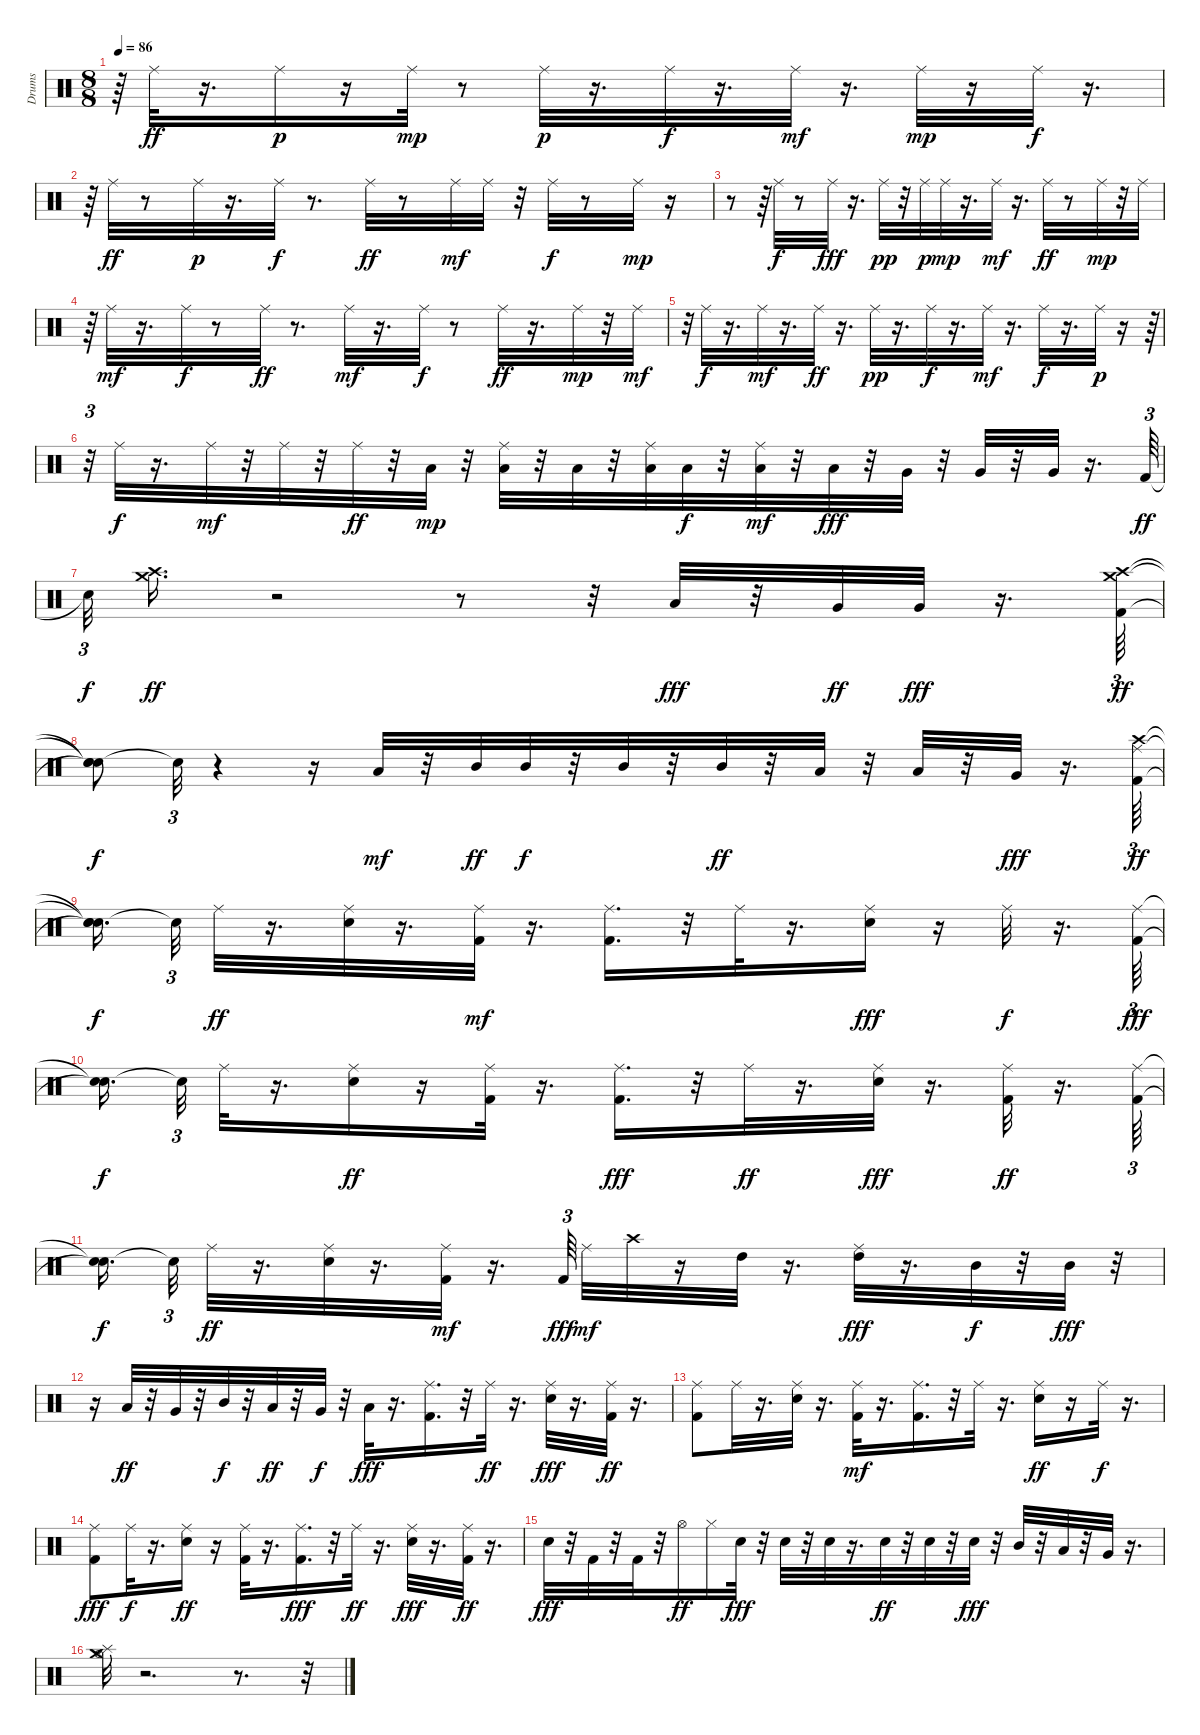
\track ("Drums" "Drums") {instrument percussion}
\staff {score}
\articulation defaults
\ts (8 8)
\tempo 86
\clef neutral
\ks c
r.64{dy f} "Ride (middle)".32{dy ff} r.16{d} "Ride (middle)".16{dy p} r.16 "Ride (middle)".32{dy mp} r.8 "Ride (middle)".32{dy p} r.16{d} "Ride (middle)".32{dy f} r.16{d} "Ride (middle)".32{dy mf} r.16{d} "Ride (middle)".32{dy mp} r.16 "Ride (middle)".32{dy f} r.16{d} |
r.64 "Ride (middle)".32{dy ff} r.8 "Ride (middle)".32{dy p} r.16{d} "Ride (middle)".32{dy f} r.8{d} "Ride (middle)".32{dy ff} r.8 "Ride (middle)".32{dy mf} "Ride (middle)".32 r.32 "Ride (middle)".32{dy f} r.8 "Ride (middle)".32{dy mp} r.16 |
r.8 r.64 "Ride (middle)".32{dy f} r.8 "Ride (middle)".32{dy fff} r.16{d} "Ride (middle)".32{dy pp} r.32 "Ride (middle)".32{dy p} "Ride (middle)".32{dy mp} r.16{d} "Ride (middle)".32{dy mf} r.16{d} "Ride (middle)".32{dy ff} r.8 "Ride (middle)".32{dy mp} r.32 "Ride (middle)".32 |
r.64 "Ride (middle)".32{dy mf} r.16{d} "Ride (middle)".32{dy f} r.8 "Ride (middle)".32{dy ff} r.8{d} "Ride (middle)".32{dy mf} r.16{d} "Ride (middle)".32{dy f} r.8 "Ride (middle)".32{dy ff} r.16{d} "Ride (middle)".32{dy mp} r.32 "Ride (middle)".32{dy mf} |
r.32{tu (3 2)} "Ride (middle)".32{dy f} r.16{d} "Ride (middle)".32{dy mf} r.16{d} "Ride (middle)".32{dy ff} r.16{d} "Ride (middle)".32{dy pp} r.16{d} "Ride (middle)".32{dy f} r.16{d} "Ride (middle)".32{dy mf} r.16{d} "Ride (middle)".32{dy f} r.16{d} "Ride (middle)".32{dy p} r.16 r.64{tu (3 2)} |
r.32{tu (3 2)} "Ride (middle)".32{dy f} r.16{d} "Ride (middle)".32{dy mf} r.32 "Ride (middle)".32 r.32 "Ride (middle)".32{dy ff} r.32 "Low Tom (hit)".32{dy mp} r.32 ("Low Tom (hit)" "Ride (middle)").32 r.32 "Low Tom (hit)".32 r.32 ("Low Tom (hit)" "Ride (middle)").32 "Low Tom (hit)".32{dy f} r.32 ("Ride (middle)" "Low Tom (hit)").32{dy mf} r.32 "Low Tom (hit)".32{dy fff} r.32 "Very Low Tom (hit)".32 r.32 "Very Low Tom (hit)".32 r.32 "Very Low Tom (hit)".32 r.16{d} "Kick (hit) 2".64{tu (3 2) dy ff} |
"Snare (hit)"{t}.32{tu (3 2) dy f} ("Crash medium (hit)" "Crash high (hit)").16{d dy ff} r.2 r.8 r.32 "Low Tom (hit)".32{dy fff} r.32 "Very Low Tom (hit)".32{dy ff} "Very Low Tom (hit)".32{dy fff} r.16{d} ("Kick (hit) 2" "Crash high (hit)" "Crash medium (hit)").64{tu (3 2) dy ff} |
("Snare (hit)"{t} "Snare (hit)"{t} "Snare (hit)"{t}).8{dy f} "Snare (hit)"{t}.32{tu (3 2)} r.4 r.16 "Low Tom (hit)".32{dy mf} r.32 "Mid Tom (hit)".32{dy ff} "Mid Tom (hit)".32{dy f} r.32 "Mid Tom (hit)".32 r.32 "Mid Tom (hit)".32{dy ff} r.32 "Low Tom (hit)".32 r.32 "Low Tom (hit)".32 r.32 "Very Low Tom (hit)".32{dy fff} r.16{d} ("Crash high (hit)" "Ride (middle)" "Kick (hit) 2").64{tu (3 2) dy ff} |
("Snare (hit)"{t} "Snare (hit)"{t} "Snare (hit)"{t}).16{d dy f} "Snare (hit)"{t}.32{tu (3 2)} "Ride (middle)".32{dy ff} r.16{d} ("Ride (middle)" "Electric Snare (hit)").32 r.16{d} ("Kick (hit) 2" "Ride (middle)").32{dy mf} r.16{d} ("Kick (hit) 2" "Ride (middle)").16{d} r.32 "Ride (middle)".32 r.16{d} ("Electric Snare (hit)" "Ride (middle)").16{dy fff} r.16 "Ride (middle)".32{dy f} r.16{d} ("Kick (hit) 2" "Ride (middle)").64{tu (3 2) dy fff} |
("Snare (hit)"{t} "Snare (hit)"{t}).16{d dy f} "Snare (hit)"{t}.32{tu (3 2)} "Ride (middle)".32 r.16{d} ("Ride (middle)" "Electric Snare (hit)").16{dy ff} r.16 ("Ride (middle)" "Kick (hit) 2").32 r.16{d} ("Ride (middle)" "Kick (hit) 2").16{d dy fff} r.32 "Ride (middle)".32{dy ff} r.16{d} ("Electric Snare (hit)" "Ride (middle)").32{dy fff} r.16{d} ("Kick (hit) 2" "Ride (middle)").32{dy ff} r.16{d} ("Ride (middle)" "Kick (hit) 2").64{tu (3 2)} |
("Snare (hit)"{t} "Snare (hit)"{t}).16{d dy f} "Snare (hit)"{t}.32{tu (3 2)} "Ride (middle)".32{dy ff} r.16{d} ("Electric Snare (hit)" "Ride (middle)").32 r.16{d} ("Kick (hit) 2" "Ride (middle)").32{dy mf} r.16{d} "Kick (hit) 2".64{tu (3 2) dy fff} "Ride (middle)".32{dy mf} "Crash high (hit)".32 r.16 "High Tom (hit)".32 r.16{d} ("Ride (middle)" "High Tom (hit)").32{dy fff} r.16{d} "Mid Tom (hit)".32{dy f} r.32 "Mid Tom (hit)".32{dy fff} r.32 |
r.16 "Low Tom (hit)".32{dy ff} r.32 "Very Low Tom (hit)".32 r.32 "Mid Tom (hit)".32{dy f} r.32 "Low Floor Tom (hit)".32{dy ff} r.32 "Very Low Tom (hit)".32{dy f} r.32 "Low Floor Tom (hit)".32{dy fff} r.16{d} ("Kick (hit) 2" "Ride (middle)").16{d} r.32 "Ride (middle)".32{dy ff} r.16{d} ("Electric Snare (hit)" "Ride (middle)").32{dy fff} r.16{d} ("Kick (hit) 2" "Ride (middle)").32{dy ff} r.16{d} |
("Kick (hit) 2" "Ride (middle)").8 "Ride (middle)".32 r.16{d} ("Ride (middle)" "Electric Snare (hit)").32 r.16{d} ("Kick (hit) 2" "Ride (middle)").32{dy mf} r.16{d} ("Kick (hit) 2" "Ride (middle)").16{d} r.32 "Ride (middle)".32 r.16{d} ("Ride (middle)" "Electric Snare (hit)").16{dy ff} r.16 "Ride (middle)".32{dy f} r.16{d} |
("Ride (middle)" "Kick (hit) 2").8{dy fff} "Ride (middle)".32{dy f} r.16{d} ("Ride (middle)" "Electric Snare (hit)").16{dy ff} r.16 ("Ride (middle)" "Kick (hit) 2").32 r.16{d} ("Ride (middle)" "Kick (hit) 2").16{d dy fff} r.32 "Ride (middle)".32{dy ff} r.16{d} ("Electric Snare (hit)" "Ride (middle)").32{dy fff} r.16{d} ("Kick (hit) 2" "Ride (middle)").32{dy ff} r.16{d} |
"Electric Snare (hit)".32{dy fff} r.32 "Kick (hit) 2".32 r.32 "Kick (hit) 2".32 r.32 "Hi-Hat (open)".16{dy ff} "Hi-Hat (closed)".16 "Electric Snare (hit)".32{dy fff} r.32 "Electric Snare (hit)".32 r.32 "Electric Snare (hit)".32 r.16{d} "Electric Snare (hit)".32{dy ff} r.32 "Snare (hit) 2".32 r.32 "Snare (hit) 2".32{dy fff} r.32 "Mid Tom (hit)".32 r.32 "Low Tom (hit)".32 r.32 "Very Low Tom (hit)".32 r.16{d} |
("Hi-Hat (open)" "Splash (hit)" "Crash medium (hit)").32 r.2{d} r.8{d} r.32
